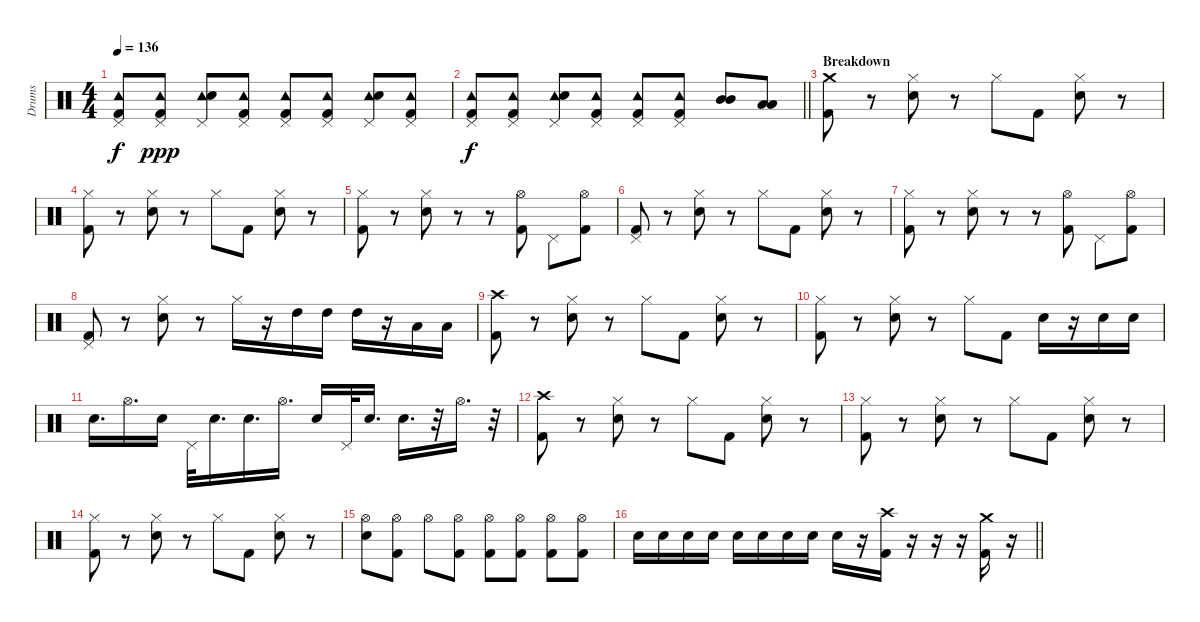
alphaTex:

\track ("Drums" "Drums") {instrument percussion}
\staff {score}
\articulation defaults
\ts (4 4)
\tempo 136
\clef neutral
\ks c
("Pedal Hi-Hat (hit)" "Tambourine (hit)" "Kick (hit) 2").8{dy f} ("Pedal Hi-Hat (hit)" "Tambourine (hit)" "Kick (hit) 2").8{dy ppp} ("Pedal Hi-Hat (hit)" "Tambourine (hit)" "Snare (hit) 2").8 ("Pedal Hi-Hat (hit)" "Tambourine (hit)" "Kick (hit) 2").8 ("Pedal Hi-Hat (hit)" "Tambourine (hit)" "Kick (hit) 2").8 ("Pedal Hi-Hat (hit)" "Tambourine (hit)" "Kick (hit) 2").8 ("Pedal Hi-Hat (hit)" "Tambourine (hit)" "Snare (hit) 2").8 ("Pedal Hi-Hat (hit)" "Tambourine (hit)" "Kick (hit) 2").8 |
\barLineRight lightlight
("Pedal Hi-Hat (hit)" "Tambourine (hit)" "Kick (hit) 2").8{dy f} ("Pedal Hi-Hat (hit)" "Tambourine (hit)" "Kick (hit) 2").8 ("Pedal Hi-Hat (hit)" "Tambourine (hit)" "Snare (hit) 2").8 ("Pedal Hi-Hat (hit)" "Tambourine (hit)" "Kick (hit) 2").8 ("Pedal Hi-Hat (hit)" "Tambourine (hit)" "Kick (hit) 2").8 ("Pedal Hi-Hat (hit)" "Tambourine (hit)" "Kick (hit) 2").8 ("Mid Tom (hit)" "Mid Tom (hit)").8 ("Low Tom (hit)" "Low Tom (hit)").8 |
\section ("" "Breakdown")
("Crash medium (hit)" "Kick (hit) 2").8 r.8 ("Hi-Hat (closed)" "Snare (hit) 2").8 r.8 "Hi-Hat (closed)".8 "Kick (hit) 2".8 ("Hi-Hat (closed)" "Snare (hit) 2").8 r.8 |
("Hi-Hat (closed)" "Kick (hit) 2").8 r.8 ("Hi-Hat (closed)" "Snare (hit) 2").8 r.8 "Hi-Hat (closed)".8 "Kick (hit) 2".8 ("Hi-Hat (closed)" "Snare (hit) 2").8 r.8 |
("Hi-Hat (closed)" "Kick (hit) 2").8 r.8 ("Hi-Hat (closed)" "Snare (hit) 2").8 r.8 r.8 ("Hi-Hat (open)" "Kick (hit) 2").8 "Pedal Hi-Hat (hit)".8 ("Hi-Hat (open)" "Kick (hit) 2").8 |
("Pedal Hi-Hat (hit)" "Kick (hit) 2").8 r.8 ("Hi-Hat (closed)" "Snare (hit) 2").8 r.8 "Hi-Hat (closed)".8 "Kick (hit) 2".8 ("Hi-Hat (closed)" "Snare (hit) 2").8 r.8 |
("Hi-Hat (closed)" "Kick (hit) 2").8 r.8 ("Hi-Hat (closed)" "Snare (hit) 2").8 r.8 r.8 ("Hi-Hat (open)" "Kick (hit) 2").8 "Pedal Hi-Hat (hit)".8 ("Hi-Hat (open)" "Kick (hit) 2").8 |
("Pedal Hi-Hat (hit)" "Kick (hit) 2").8 r.8 ("Hi-Hat (closed)" "Snare (hit) 2").8 r.8 "Hi-Hat (closed)".16 r.16 "High Tom (hit)".16 "High Tom (hit)".16 "High Tom (hit)".16 r.16 "Low Tom (hit)".16 "Low Tom (hit)".16 |
("Crash high (hit)" "Kick (hit) 2").8 r.8 ("Hi-Hat (closed)" "Snare (hit) 2").8 r.8 "Hi-Hat (closed)".8 "Kick (hit) 2".8 ("Hi-Hat (closed)" "Snare (hit) 2").8 r.8 |
("Hi-Hat (closed)" "Kick (hit) 2").8 r.8 ("Hi-Hat (closed)" "Snare (hit) 2").8 r.8 "Hi-Hat (closed)".8 "Kick (hit) 2".8 "Snare (hit) 2".16 r.16 "Snare (hit) 2".16 "Snare (hit) 2".16 |
"Snare (hit) 2".16{d} "Hi-Hat (open)".16{d} "Snare (hit) 2".16 "Pedal Hi-Hat (hit)".32 "Snare (hit) 2".16{d} "Snare (hit) 2".16{d} "Hi-Hat (open)".16{d} "Snare (hit) 2".16 "Pedal Hi-Hat (hit)".32 "Snare (hit) 2".16{d} "Snare (hit) 2".16{d} r.32 "Hi-Hat (open)".16{d} r.32 |
("Crash high (hit)" "Kick (hit) 2").8 r.8 ("Hi-Hat (closed)" "Snare (hit) 2").8 r.8 "Hi-Hat (closed)".8 "Kick (hit) 2".8 ("Hi-Hat (closed)" "Snare (hit) 2").8 r.8 |
("Hi-Hat (closed)" "Kick (hit) 2").8 r.8 ("Hi-Hat (closed)" "Snare (hit) 2").8 r.8 "Hi-Hat (closed)".8 "Kick (hit) 2".8 ("Hi-Hat (closed)" "Snare (hit) 2").8 r.8 |
("Hi-Hat (closed)" "Kick (hit) 2").8 r.8 ("Hi-Hat (closed)" "Snare (hit) 2").8 r.8 "Hi-Hat (closed)".8 "Kick (hit) 2".8 ("Hi-Hat (closed)" "Snare (hit) 2").8 r.8 |
("Hi-Hat (open)" "Snare (hit) 2").8 ("Hi-Hat (open)" "Kick (hit) 2").8 "Hi-Hat (open)".8 ("Hi-Hat (open)" "Kick (hit) 2").8 ("Hi-Hat (open)" "Kick (hit) 2").8 ("Hi-Hat (open)" "Kick (hit) 2").8 ("Hi-Hat (open)" "Kick (hit) 2").8 ("Hi-Hat (open)" "Kick (hit) 2").8 |
\barLineRight lightlight "Snare (hit) 2".16 "Snare (hit) 2".16 "Snare (hit) 2".16 "Snare (hit) 2".16 "Snare (hit) 2".16 "Snare (hit) 2".16 "Snare (hit) 2".16 "Snare (hit) 2".16 "Snare (hit) 2".16
r.16 ("Crash high (hit)" "Kick (hit) 2").16 r.16 r.16 r.16 ("Crash medium (hit)" "Kick (hit) 2").16 r.16
